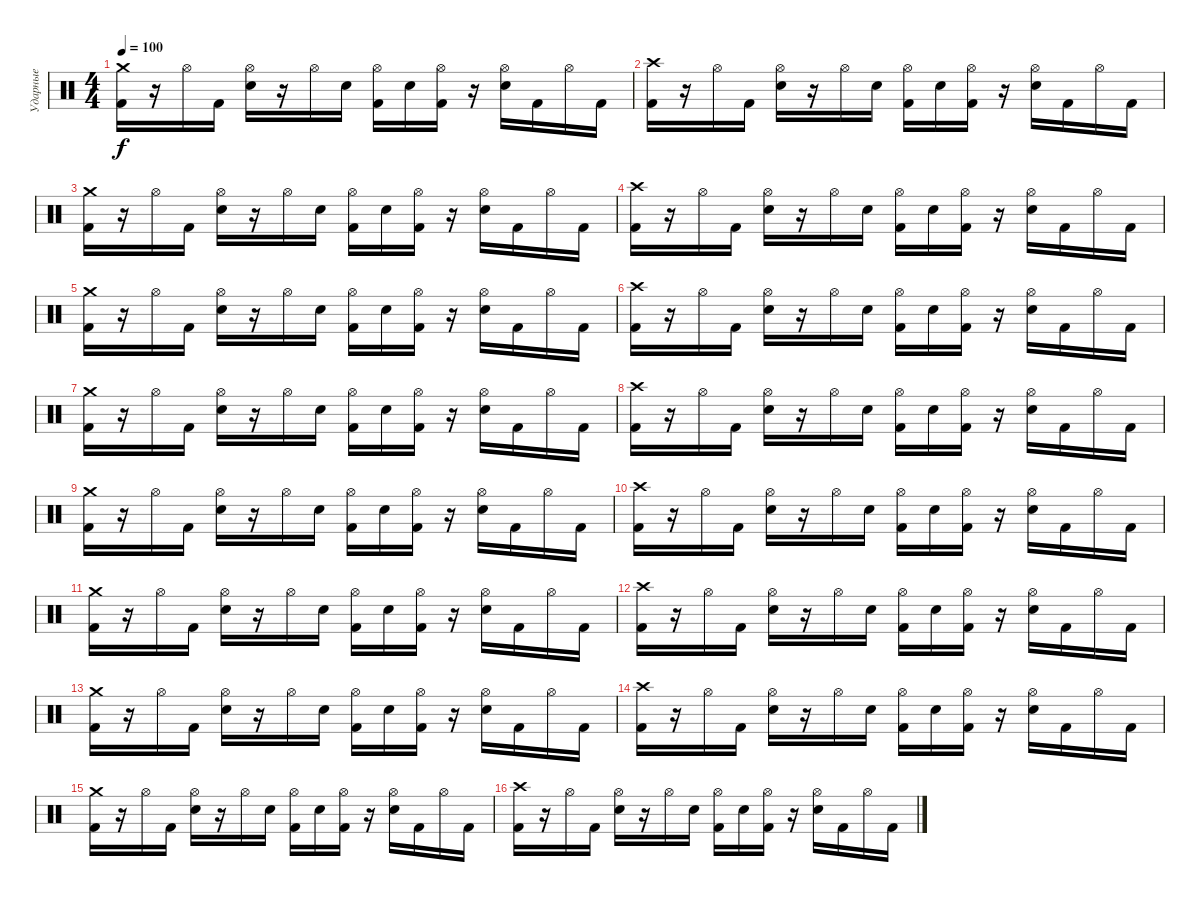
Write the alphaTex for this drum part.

\track ("Ударные" "Ударные") {instrument percussion}
\staff {score}
\articulation defaults
\ts (4 4)
\tempo 100
\clef neutral
\ks c
("Crash medium (hit)" "Kick (hit) 2").16{dy f} r.16 "Hi-Hat (open)".16 "Kick (hit) 2".16 ("Hi-Hat (open)" "Snare (hit) 2").16 r.16 "Hi-Hat (open)".16 "Snare (hit) 2".16 ("Hi-Hat (open)" "Kick (hit) 2").16 "Snare (hit) 2".16 ("Hi-Hat (open)" "Kick (hit) 2").16 r.16 ("Hi-Hat (open)" "Snare (hit) 2").16 "Kick (hit) 2".16 "Hi-Hat (open)".16 "Kick (hit) 2".16 |
("Crash high (hit)" "Kick (hit) 2").16 r.16 "Hi-Hat (open)".16 "Kick (hit) 2".16 ("Hi-Hat (open)" "Snare (hit) 2").16 r.16 "Hi-Hat (open)".16 "Snare (hit) 2".16 ("Hi-Hat (open)" "Kick (hit) 2").16 "Snare (hit) 2".16 ("Hi-Hat (open)" "Kick (hit) 2").16 r.16 ("Hi-Hat (open)" "Snare (hit) 2").16 "Kick (hit) 2".16 "Hi-Hat (open)".16 "Kick (hit) 2".16 |
("Crash medium (hit)" "Kick (hit) 2").16 r.16 "Hi-Hat (open)".16 "Kick (hit) 2".16 ("Hi-Hat (open)" "Snare (hit) 2").16 r.16 "Hi-Hat (open)".16 "Snare (hit) 2".16 ("Hi-Hat (open)" "Kick (hit) 2").16 "Snare (hit) 2".16 ("Hi-Hat (open)" "Kick (hit) 2").16 r.16 ("Hi-Hat (open)" "Snare (hit) 2").16 "Kick (hit) 2".16 "Hi-Hat (open)".16 "Kick (hit) 2".16 |
("Crash high (hit)" "Kick (hit) 2").16 r.16 "Hi-Hat (open)".16 "Kick (hit) 2".16 ("Hi-Hat (open)" "Snare (hit) 2").16 r.16 "Hi-Hat (open)".16 "Snare (hit) 2".16 ("Hi-Hat (open)" "Kick (hit) 2").16 "Snare (hit) 2".16 ("Hi-Hat (open)" "Kick (hit) 2").16 r.16 ("Hi-Hat (open)" "Snare (hit) 2").16 "Kick (hit) 2".16 "Hi-Hat (open)".16 "Kick (hit) 2".16 |
("Crash medium (hit)" "Kick (hit) 2").16 r.16 "Hi-Hat (open)".16 "Kick (hit) 2".16 ("Hi-Hat (open)" "Snare (hit) 2").16 r.16 "Hi-Hat (open)".16 "Snare (hit) 2".16 ("Hi-Hat (open)" "Kick (hit) 2").16 "Snare (hit) 2".16 ("Hi-Hat (open)" "Kick (hit) 2").16 r.16 ("Hi-Hat (open)" "Snare (hit) 2").16 "Kick (hit) 2".16 "Hi-Hat (open)".16 "Kick (hit) 2".16 |
("Crash high (hit)" "Kick (hit) 2").16 r.16 "Hi-Hat (open)".16 "Kick (hit) 2".16 ("Hi-Hat (open)" "Snare (hit) 2").16 r.16 "Hi-Hat (open)".16 "Snare (hit) 2".16 ("Hi-Hat (open)" "Kick (hit) 2").16 "Snare (hit) 2".16 ("Hi-Hat (open)" "Kick (hit) 2").16 r.16 ("Hi-Hat (open)" "Snare (hit) 2").16 "Kick (hit) 2".16 "Hi-Hat (open)".16 "Kick (hit) 2".16 |
("Crash medium (hit)" "Kick (hit) 2").16 r.16 "Hi-Hat (open)".16 "Kick (hit) 2".16 ("Hi-Hat (open)" "Snare (hit) 2").16 r.16 "Hi-Hat (open)".16 "Snare (hit) 2".16 ("Hi-Hat (open)" "Kick (hit) 2").16 "Snare (hit) 2".16 ("Hi-Hat (open)" "Kick (hit) 2").16 r.16 ("Hi-Hat (open)" "Snare (hit) 2").16 "Kick (hit) 2".16 "Hi-Hat (open)".16 "Kick (hit) 2".16 |
("Crash high (hit)" "Kick (hit) 2").16 r.16 "Hi-Hat (open)".16 "Kick (hit) 2".16 ("Hi-Hat (open)" "Snare (hit) 2").16 r.16 "Hi-Hat (open)".16 "Snare (hit) 2".16 ("Hi-Hat (open)" "Kick (hit) 2").16 "Snare (hit) 2".16 ("Hi-Hat (open)" "Kick (hit) 2").16 r.16 ("Hi-Hat (open)" "Snare (hit) 2").16 "Kick (hit) 2".16 "Hi-Hat (open)".16 "Kick (hit) 2".16 |
("Crash medium (hit)" "Kick (hit) 2").16 r.16 "Hi-Hat (open)".16 "Kick (hit) 2".16 ("Hi-Hat (open)" "Snare (hit) 2").16 r.16 "Hi-Hat (open)".16 "Snare (hit) 2".16 ("Hi-Hat (open)" "Kick (hit) 2").16 "Snare (hit) 2".16 ("Hi-Hat (open)" "Kick (hit) 2").16 r.16 ("Hi-Hat (open)" "Snare (hit) 2").16 "Kick (hit) 2".16 "Hi-Hat (open)".16 "Kick (hit) 2".16 |
("Crash high (hit)" "Kick (hit) 2").16 r.16 "Hi-Hat (open)".16 "Kick (hit) 2".16 ("Hi-Hat (open)" "Snare (hit) 2").16 r.16 "Hi-Hat (open)".16 "Snare (hit) 2".16 ("Hi-Hat (open)" "Kick (hit) 2").16 "Snare (hit) 2".16 ("Hi-Hat (open)" "Kick (hit) 2").16 r.16 ("Hi-Hat (open)" "Snare (hit) 2").16 "Kick (hit) 2".16 "Hi-Hat (open)".16 "Kick (hit) 2".16 |
("Crash medium (hit)" "Kick (hit) 2").16 r.16 "Hi-Hat (open)".16 "Kick (hit) 2".16 ("Hi-Hat (open)" "Snare (hit) 2").16 r.16 "Hi-Hat (open)".16 "Snare (hit) 2".16 ("Hi-Hat (open)" "Kick (hit) 2").16 "Snare (hit) 2".16 ("Hi-Hat (open)" "Kick (hit) 2").16 r.16 ("Hi-Hat (open)" "Snare (hit) 2").16 "Kick (hit) 2".16 "Hi-Hat (open)".16 "Kick (hit) 2".16 |
("Crash high (hit)" "Kick (hit) 2").16 r.16 "Hi-Hat (open)".16 "Kick (hit) 2".16 ("Hi-Hat (open)" "Snare (hit) 2").16 r.16 "Hi-Hat (open)".16 "Snare (hit) 2".16 ("Hi-Hat (open)" "Kick (hit) 2").16 "Snare (hit) 2".16 ("Hi-Hat (open)" "Kick (hit) 2").16 r.16 ("Hi-Hat (open)" "Snare (hit) 2").16 "Kick (hit) 2".16 "Hi-Hat (open)".16 "Kick (hit) 2".16 |
("Crash medium (hit)" "Kick (hit) 2").16 r.16 "Hi-Hat (open)".16 "Kick (hit) 2".16 ("Hi-Hat (open)" "Snare (hit) 2").16 r.16 "Hi-Hat (open)".16 "Snare (hit) 2".16 ("Hi-Hat (open)" "Kick (hit) 2").16 "Snare (hit) 2".16 ("Hi-Hat (open)" "Kick (hit) 2").16 r.16 ("Hi-Hat (open)" "Snare (hit) 2").16 "Kick (hit) 2".16 "Hi-Hat (open)".16 "Kick (hit) 2".16 |
("Crash high (hit)" "Kick (hit) 2").16 r.16 "Hi-Hat (open)".16 "Kick (hit) 2".16 ("Hi-Hat (open)" "Snare (hit) 2").16 r.16 "Hi-Hat (open)".16 "Snare (hit) 2".16 ("Hi-Hat (open)" "Kick (hit) 2").16 "Snare (hit) 2".16 ("Hi-Hat (open)" "Kick (hit) 2").16 r.16 ("Hi-Hat (open)" "Snare (hit) 2").16 "Kick (hit) 2".16 "Hi-Hat (open)".16 "Kick (hit) 2".16 |
("Crash medium (hit)" "Kick (hit) 2").16 r.16 "Hi-Hat (open)".16 "Kick (hit) 2".16 ("Hi-Hat (open)" "Snare (hit) 2").16 r.16 "Hi-Hat (open)".16 "Snare (hit) 2".16 ("Hi-Hat (open)" "Kick (hit) 2").16 "Snare (hit) 2".16 ("Hi-Hat (open)" "Kick (hit) 2").16 r.16 ("Hi-Hat (open)" "Snare (hit) 2").16 "Kick (hit) 2".16 "Hi-Hat (open)".16 "Kick (hit) 2".16 |
("Crash high (hit)" "Kick (hit) 2").16 r.16 "Hi-Hat (open)".16 "Kick (hit) 2".16 ("Hi-Hat (open)" "Snare (hit) 2").16 r.16 "Hi-Hat (open)".16 "Snare (hit) 2".16 ("Hi-Hat (open)" "Kick (hit) 2").16 "Snare (hit) 2".16 ("Hi-Hat (open)" "Kick (hit) 2").16 r.16 ("Hi-Hat (open)" "Snare (hit) 2").16 "Kick (hit) 2".16 "Hi-Hat (open)".16 "Kick (hit) 2".16
